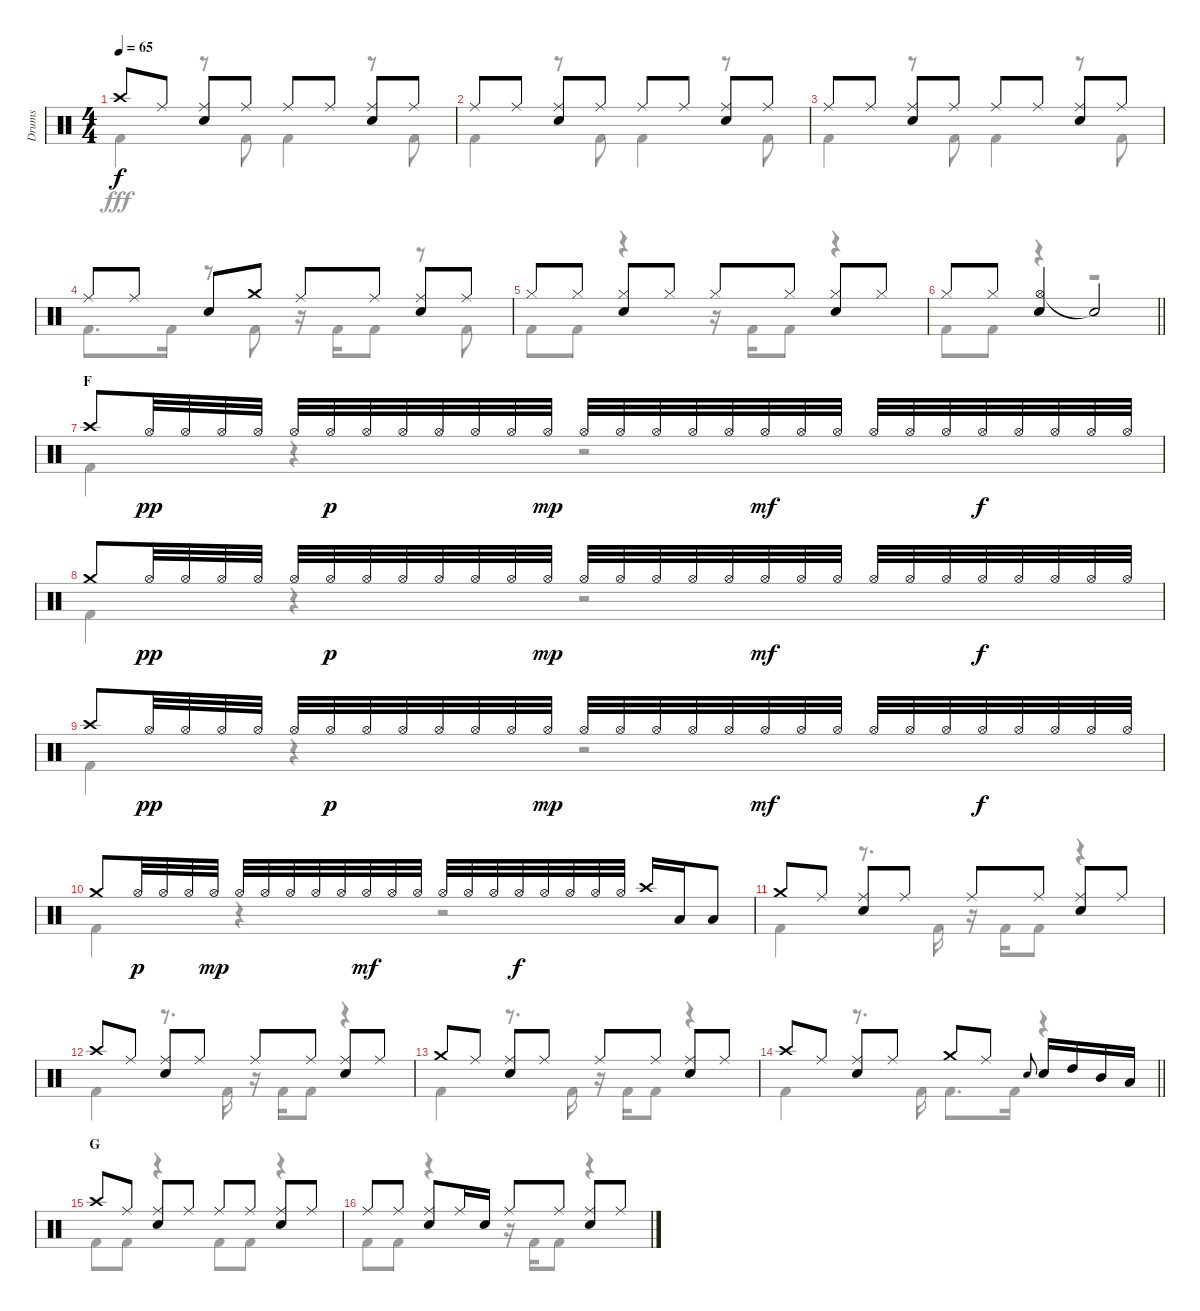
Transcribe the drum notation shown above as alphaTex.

\track ("Drums" "Drums") {instrument percussion}
\staff {score}
\articulation defaults
\voice
\ts (4 4)
\tempo 65
\clef neutral
\ks c "Crash high (hit)".8{dy f} "Ride (middle)".8
("Ride (middle)" "Snare (hit) 2").8 "Ride (middle)".8 "Ride (middle)".8 "Ride (middle)".8 ("Ride (middle)" "Snare (hit) 2").8 "Ride (middle)".8 |
"Ride (middle)".8 "Ride (middle)".8 ("Ride (middle)" "Snare (hit) 2").8 "Ride (middle)".8 "Ride (middle)".8 "Ride (middle)".8 ("Ride (middle)" "Snare (hit) 2").8 "Ride (middle)".8 |
"Ride (middle)".8 "Ride (middle)".8 ("Ride (middle)" "Snare (hit) 2").8 "Ride (middle)".8 "Ride (middle)".8 "Ride (middle)".8 ("Ride (middle)" "Snare (hit) 2").8 "Ride (middle)".8 |
"Ride (middle)".8 "Ride (middle)".8 "Snare (hit) 2".8 "Crash medium (hit)".8 "Ride (middle)".8 "Ride (middle)".8 ("Ride (middle)" "Snare (hit) 2").8 "Ride (middle)".8 |
"Hi-Hat (closed)".8 "Hi-Hat (closed)".8 ("Hi-Hat (closed)" "Snare (hit) 2").8 "Hi-Hat (closed)".8 "Hi-Hat (closed)".8 "Hi-Hat (closed)".8 ("Hi-Hat (closed)" "Snare (hit) 2").8 "Hi-Hat (closed)".8 |
\barLineRight lightlight "Hi-Hat (closed)".8 "Hi-Hat (closed)".8
("Hi-Hat (open)" "Snare (hit) 2").4 "Snare (hit)"{t}.2 |
\section ("" "F")
"Crash high (hit)".8 "Hi-Hat (open)".32{dy pp} "Hi-Hat (open)".32 "Hi-Hat (open)".32 "Hi-Hat (open)".32 "Hi-Hat (open)".32 "Hi-Hat (open)".32{dy p} "Hi-Hat (open)".32 "Hi-Hat (open)".32 "Hi-Hat (open)".32 "Hi-Hat (open)".32 "Hi-Hat (open)".32 "Hi-Hat (open)".32{dy mp} "Hi-Hat (open)".32 "Hi-Hat (open)".32 "Hi-Hat (open)".32 "Hi-Hat (open)".32 "Hi-Hat (open)".32 "Hi-Hat (open)".32{dy mf} "Hi-Hat (open)".32 "Hi-Hat (open)".32 "Hi-Hat (open)".32 "Hi-Hat (open)".32 "Hi-Hat (open)".32 "Hi-Hat (open)".32{dy f} "Hi-Hat (open)".32 "Hi-Hat (open)".32 "Hi-Hat (open)".32 "Hi-Hat (open)".32 |
"Crash medium (hit)".8 "Hi-Hat (open)".32{dy pp} "Hi-Hat (open)".32 "Hi-Hat (open)".32 "Hi-Hat (open)".32 "Hi-Hat (open)".32 "Hi-Hat (open)".32{dy p} "Hi-Hat (open)".32 "Hi-Hat (open)".32 "Hi-Hat (open)".32 "Hi-Hat (open)".32 "Hi-Hat (open)".32 "Hi-Hat (open)".32{dy mp} "Hi-Hat (open)".32 "Hi-Hat (open)".32 "Hi-Hat (open)".32 "Hi-Hat (open)".32 "Hi-Hat (open)".32 "Hi-Hat (open)".32{dy mf} "Hi-Hat (open)".32 "Hi-Hat (open)".32 "Hi-Hat (open)".32 "Hi-Hat (open)".32 "Hi-Hat (open)".32 "Hi-Hat (open)".32{dy f} "Hi-Hat (open)".32 "Hi-Hat (open)".32 "Hi-Hat (open)".32 "Hi-Hat (open)".32 |
"Crash high (hit)".8 "Hi-Hat (open)".32{dy pp} "Hi-Hat (open)".32 "Hi-Hat (open)".32 "Hi-Hat (open)".32 "Hi-Hat (open)".32 "Hi-Hat (open)".32{dy p} "Hi-Hat (open)".32 "Hi-Hat (open)".32 "Hi-Hat (open)".32 "Hi-Hat (open)".32 "Hi-Hat (open)".32 "Hi-Hat (open)".32{dy mp} "Hi-Hat (open)".32 "Hi-Hat (open)".32 "Hi-Hat (open)".32 "Hi-Hat (open)".32 "Hi-Hat (open)".32 "Hi-Hat (open)".32{dy mf} "Hi-Hat (open)".32 "Hi-Hat (open)".32 "Hi-Hat (open)".32 "Hi-Hat (open)".32 "Hi-Hat (open)".32 "Hi-Hat (open)".32{dy f} "Hi-Hat (open)".32 "Hi-Hat (open)".32 "Hi-Hat (open)".32 "Hi-Hat (open)".32 |
"Crash medium (hit)".8 "Hi-Hat (open)".32{dy p} "Hi-Hat (open)".32 "Hi-Hat (open)".32 "Hi-Hat (open)".32{dy mp} "Hi-Hat (open)".32 "Hi-Hat (open)".32 "Hi-Hat (open)".32 "Hi-Hat (open)".32 "Hi-Hat (open)".32 "Hi-Hat (open)".32{dy mf} "Hi-Hat (open)".32 "Hi-Hat (open)".32 "Hi-Hat (open)".32 "Hi-Hat (open)".32 "Hi-Hat (open)".32 "Hi-Hat (open)".32{dy f} "Hi-Hat (open)".32 "Hi-Hat (open)".32 "Hi-Hat (open)".32 "Hi-Hat (open)".32 "Crash high (hit)".16 "Low Tom (hit)".16 "Low Tom (hit)".8 |
"Crash medium (hit)".8 "Ride (middle)".8 ("Ride (middle)" "Snare (hit) 2").8 "Ride (middle)".8 "Ride (middle)".8 "Ride (middle)".8 ("Ride (middle)" "Snare (hit) 2").8 "Ride (middle)".8 |
"Crash high (hit)".8 "Ride (middle)".8 ("Ride (middle)" "Snare (hit) 2").8 "Ride (middle)".8 "Ride (middle)".8 "Ride (middle)".8 ("Ride (middle)" "Snare (hit) 2").8 "Ride (middle)".8 |
"Crash medium (hit)".8 "Ride (middle)".8 ("Ride (middle)" "Snare (hit) 2").8 "Ride (middle)".8 "Ride (middle)".8 "Ride (middle)".8 ("Ride (middle)" "Snare (hit) 2").8 "Ride (middle)".8 |
\barLineRight lightlight "Crash high (hit)".8 "Ride (middle)".8
("Ride (middle)" "Snare (hit) 2").8 "Ride (middle)".8 "Crash medium (hit)".8 "Ride (middle)".8 "Snare (hit) 2".8{gr onbeat} "Snare (hit) 2".16 "High Tom (hit)".16 "Mid Tom (hit)".16 "Low Tom (hit)".16 |
\section ("" "G")
"Crash high (hit)".8 "Ride (middle)".8 ("Ride (middle)" "Snare (hit) 2").8 "Ride (middle)".8 "Ride (middle)".8 "Ride (middle)".8 ("Ride (middle)" "Snare (hit) 2").8 "Ride (middle)".8 |
"Ride (middle)".8 "Ride (middle)".8 ("Ride (middle)" "Snare (hit) 2").8 "Ride (middle)".16 "Snare (hit) 2".16 "Ride (middle)".8 "Ride (middle)".8 ("Ride (middle)" "Snare (hit) 2").8 "Ride (middle)".8
\voice
\clef neutral
\ottava regular
\simile none
\ks c "Kick (hit) 2".4{dy fff}
r.8 "Kick (hit) 2".8 "Kick (hit) 2".4 r.8 "Kick (hit) 2".8 |
"Kick (hit) 2".4 r.8 "Kick (hit) 2".8 "Kick (hit) 2".4 r.8 "Kick (hit) 2".8 |
"Kick (hit) 2".4 r.8 "Kick (hit) 2".8 "Kick (hit) 2".4 r.8 "Kick (hit) 2".8 |
"Kick (hit) 2".8{d} "Kick (hit) 2".16 r.8 "Kick (hit) 2".8 r.16 "Kick (hit) 2".16 "Kick (hit) 2".8 r.8 "Kick (hit) 2".8 |
"Kick (hit) 2".8 "Kick (hit) 2".8 r.4 r.16 "Kick (hit) 2".16 "Kick (hit) 2".8 r.4 |
\barLineRight lightlight "Kick (hit) 2".8 "Kick (hit) 2".8
r.4 r.2 |
"Kick (hit) 2".4 r.4 r.2 |
"Kick (hit) 2".4 r.4 r.2 |
"Kick (hit) 2".4 r.4 r.2 |
"Kick (hit) 2".4 r.4 r.2 |
"Kick (hit) 2".4 r.8{d} "Kick (hit) 2".16 r.16 "Kick (hit) 2".16 "Kick (hit) 2".8 r.4 |
"Kick (hit) 2".4 r.8{d} "Kick (hit) 2".16 r.16 "Kick (hit) 2".16 "Kick (hit) 2".8 r.4 |
"Kick (hit) 2".4 r.8{d} "Kick (hit) 2".16 r.16 "Kick (hit) 2".16 "Kick (hit) 2".8 r.4 |
\barLineRight lightlight "Kick (hit) 2".4
r.8{d} "Kick (hit) 2".16 "Kick (hit) 2".8{d} "Kick (hit) 2".16 r.4 |
"Kick (hit) 2".8 "Kick (hit) 2".8 r.4 "Kick (hit) 2".8 "Kick (hit) 2".8 r.4 |
"Kick (hit) 2".8 "Kick (hit) 2".8 r.4 r.16 "Kick (hit) 2".16 "Kick (hit) 2".8 r.4
